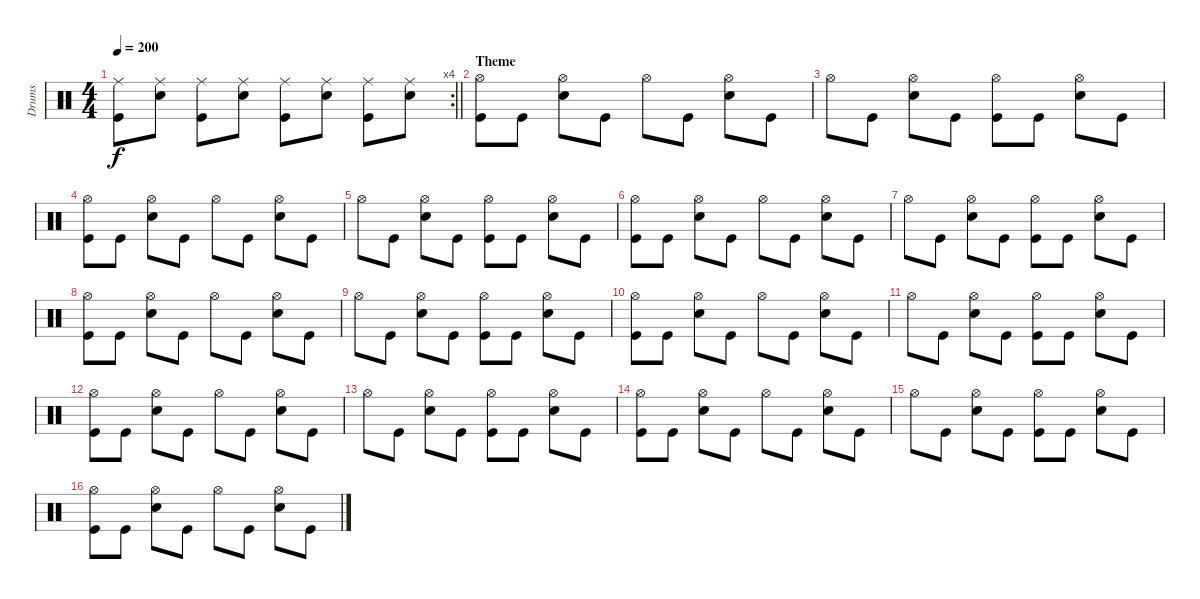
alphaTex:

\track ("Drums" "Drums") {instrument percussion}
\staff {score}
\articulation defaults
\rc 4
\ts (4 4)
\tempo 200
\clef neutral
\barLineRight lightlight
\ks c
("Ride (middle)" "Kick (hit)").8{dy f} ("Ride (middle)" "Snare (hit) 2").8 ("Ride (middle)" "Kick (hit)").8 ("Ride (middle)" "Snare (hit) 2").8 ("Ride (middle)" "Kick (hit)").8 ("Ride (middle)" "Snare (hit) 2").8 ("Ride (middle)" "Kick (hit)").8 ("Ride (middle)" "Snare (hit) 2").8 |
\section ("" "Theme")
("Hi-Hat (open)" "Kick (hit)").8 "Kick (hit)".8 ("Hi-Hat (open)" "Snare (hit) 2").8 "Kick (hit)".8 "Hi-Hat (open)".8 "Kick (hit)".8 ("Hi-Hat (open)" "Snare (hit) 2").8 "Kick (hit)".8 |
"Hi-Hat (open)".8 "Kick (hit)".8 ("Hi-Hat (open)" "Snare (hit) 2").8 "Kick (hit)".8 ("Hi-Hat (open)" "Kick (hit)").8 "Kick (hit)".8 ("Hi-Hat (open)" "Snare (hit) 2").8 "Kick (hit)".8 |
("Hi-Hat (open)" "Kick (hit)").8 "Kick (hit)".8 ("Hi-Hat (open)" "Snare (hit) 2").8 "Kick (hit)".8 "Hi-Hat (open)".8 "Kick (hit)".8 ("Hi-Hat (open)" "Snare (hit) 2").8 "Kick (hit)".8 |
"Hi-Hat (open)".8 "Kick (hit)".8 ("Hi-Hat (open)" "Snare (hit) 2").8 "Kick (hit)".8 ("Hi-Hat (open)" "Kick (hit)").8 "Kick (hit)".8 ("Hi-Hat (open)" "Snare (hit) 2").8 "Kick (hit)".8 |
("Hi-Hat (open)" "Kick (hit)").8 "Kick (hit)".8 ("Hi-Hat (open)" "Snare (hit) 2").8 "Kick (hit)".8 "Hi-Hat (open)".8 "Kick (hit)".8 ("Hi-Hat (open)" "Snare (hit) 2").8 "Kick (hit)".8 |
"Hi-Hat (open)".8 "Kick (hit)".8 ("Hi-Hat (open)" "Snare (hit) 2").8 "Kick (hit)".8 ("Hi-Hat (open)" "Kick (hit)").8 "Kick (hit)".8 ("Hi-Hat (open)" "Snare (hit) 2").8 "Kick (hit)".8 |
("Hi-Hat (open)" "Kick (hit)").8 "Kick (hit)".8 ("Hi-Hat (open)" "Snare (hit) 2").8 "Kick (hit)".8 "Hi-Hat (open)".8 "Kick (hit)".8 ("Hi-Hat (open)" "Snare (hit) 2").8 "Kick (hit)".8 |
"Hi-Hat (open)".8 "Kick (hit)".8 ("Hi-Hat (open)" "Snare (hit) 2").8 "Kick (hit)".8 ("Hi-Hat (open)" "Kick (hit)").8 "Kick (hit)".8 ("Hi-Hat (open)" "Snare (hit) 2").8 "Kick (hit)".8 |
("Hi-Hat (open)" "Kick (hit)").8 "Kick (hit)".8 ("Hi-Hat (open)" "Snare (hit) 2").8 "Kick (hit)".8 "Hi-Hat (open)".8 "Kick (hit)".8 ("Hi-Hat (open)" "Snare (hit) 2").8 "Kick (hit)".8 |
"Hi-Hat (open)".8 "Kick (hit)".8 ("Hi-Hat (open)" "Snare (hit) 2").8 "Kick (hit)".8 ("Hi-Hat (open)" "Kick (hit)").8 "Kick (hit)".8 ("Hi-Hat (open)" "Snare (hit) 2").8 "Kick (hit)".8 |
("Hi-Hat (open)" "Kick (hit)").8 "Kick (hit)".8 ("Hi-Hat (open)" "Snare (hit) 2").8 "Kick (hit)".8 "Hi-Hat (open)".8 "Kick (hit)".8 ("Hi-Hat (open)" "Snare (hit) 2").8 "Kick (hit)".8 |
"Hi-Hat (open)".8 "Kick (hit)".8 ("Hi-Hat (open)" "Snare (hit) 2").8 "Kick (hit)".8 ("Hi-Hat (open)" "Kick (hit)").8 "Kick (hit)".8 ("Hi-Hat (open)" "Snare (hit) 2").8 "Kick (hit)".8 |
("Hi-Hat (open)" "Kick (hit)").8 "Kick (hit)".8 ("Hi-Hat (open)" "Snare (hit) 2").8 "Kick (hit)".8 "Hi-Hat (open)".8 "Kick (hit)".8 ("Hi-Hat (open)" "Snare (hit) 2").8 "Kick (hit)".8 |
"Hi-Hat (open)".8 "Kick (hit)".8 ("Hi-Hat (open)" "Snare (hit) 2").8 "Kick (hit)".8 ("Hi-Hat (open)" "Kick (hit)").8 "Kick (hit)".8 ("Hi-Hat (open)" "Snare (hit) 2").8 "Kick (hit)".8 |
("Hi-Hat (open)" "Kick (hit)").8 "Kick (hit)".8 ("Hi-Hat (open)" "Snare (hit) 2").8 "Kick (hit)".8 "Hi-Hat (open)".8 "Kick (hit)".8 ("Hi-Hat (open)" "Snare (hit) 2").8 "Kick (hit)".8
